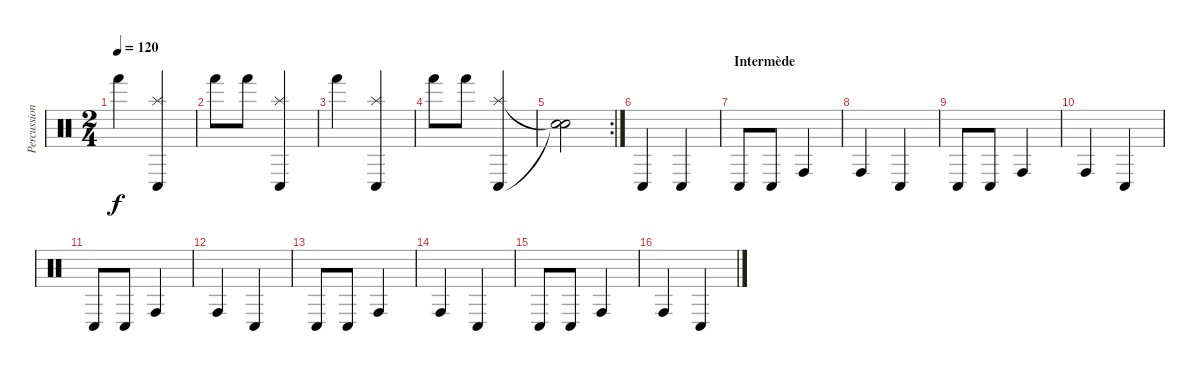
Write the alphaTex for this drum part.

\track ("Percussions" "Percussion") {instrument percussion}
\staff {score}
\articulation defaults
\ts (2 4)
\tempo 120
\clef neutral
\ks c "Hand (hit)".4{dy f}
("Conga low (hit)" "Splash (hit)").4 |
"Hand (hit)".8 "Hand (hit)".8 ("Conga low (hit)" "Splash (hit)").4 |
"Hand (hit)".4 ("Conga low (hit)" "Splash (hit)").4 |
"Hand (hit)".8 "Hand (hit)".8 ("Conga low (hit)" "Splash (hit)").4 |
\rc 2
("Snare (hit)"{t} "Snare (hit)"{t}).2 |
"Conga low (hit)".4 "Conga low (hit)".4 |
\section ("" "Intermède")
"Conga low (hit)".8 "Conga low (hit)".8 "Conga high (hit)".4 |
"Conga high (hit)".4 "Conga low (hit)".4 |
"Conga low (hit)".8 "Conga low (hit)".8 "Conga high (hit)".4 |
"Conga high (hit)".4 "Conga low (hit)".4 |
"Conga low (hit)".8 "Conga low (hit)".8 "Conga high (hit)".4 |
"Conga high (hit)".4 "Conga low (hit)".4 |
"Conga low (hit)".8 "Conga low (hit)".8 "Conga high (hit)".4 |
"Conga high (hit)".4 "Conga low (hit)".4 |
"Conga low (hit)".8 "Conga low (hit)".8 "Conga high (hit)".4 |
"Conga high (hit)".4 "Conga low (hit)".4
